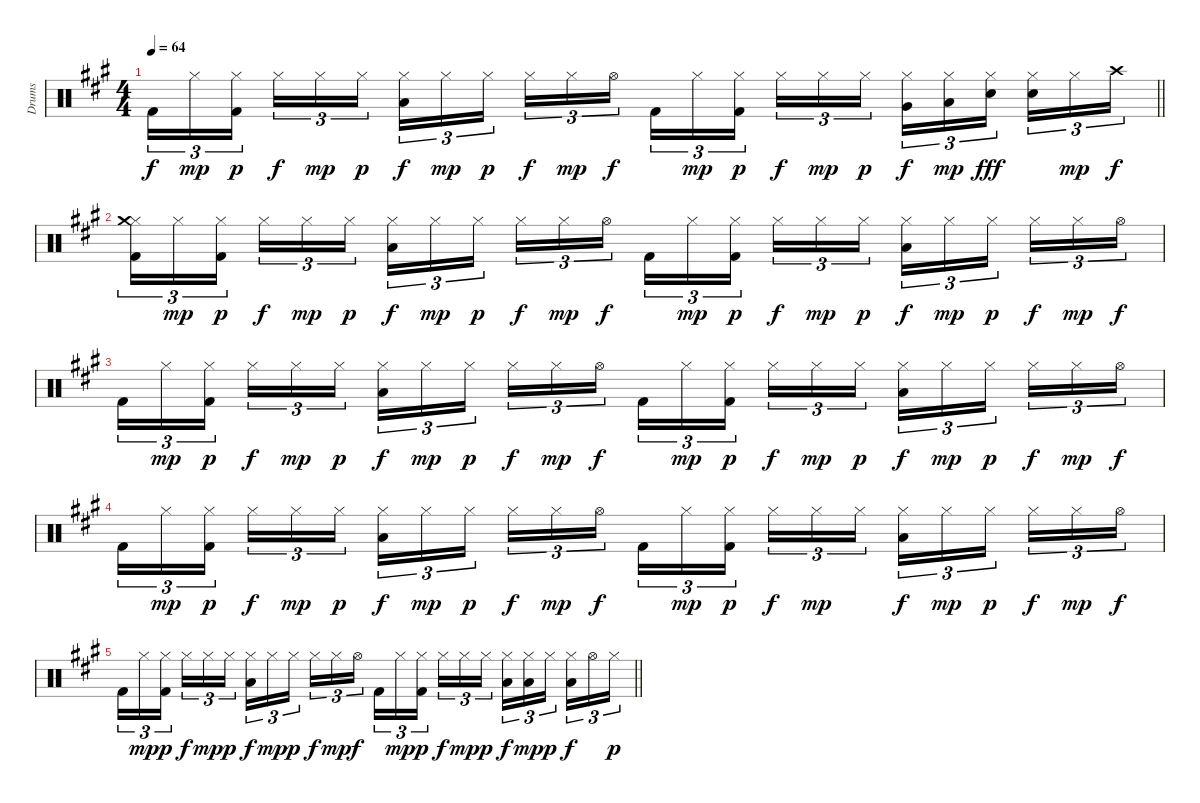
\track ("Drums          " "Drums     ") {instrument percussion}
\staff {score}
\articulation defaults
\ts (4 4)
\tempo 64
\clef neutral
\barLineRight lightlight
\ks f#minor "Kick (hit) 2".16{tu (3 2) dy f} "Hi-Hat (closed)".16{tu (3 2) dy mp}
("Hi-Hat (closed)" "Kick (hit) 2").16{tu (3 2) dy p beam splitsecondary} "Hi-Hat (closed)".16{tu (3 2) dy f} "Hi-Hat (closed)".16{tu (3 2) dy mp} "Hi-Hat (closed)".16{tu (3 2) dy p} ("Hi-Hat (closed)" "Low Floor Tom (hit)").16{tu (3 2) dy f} "Hi-Hat (closed)".16{tu (3 2) dy mp} "Hi-Hat (closed)".16{tu (3 2) dy p beam splitsecondary} "Hi-Hat (closed)".16{tu (3 2) dy f} "Hi-Hat (closed)".16{tu (3 2) dy mp} "Hi-Hat (open)".16{tu (3 2) dy f} "Kick (hit) 2".16{tu (3 2)} "Hi-Hat (closed)".16{tu (3 2) dy mp} ("Hi-Hat (closed)" "Kick (hit) 2").16{tu (3 2) dy p beam splitsecondary} "Hi-Hat (closed)".16{tu (3 2) dy f} "Hi-Hat (closed)".16{tu (3 2) dy mp} "Hi-Hat (closed)".16{tu (3 2) dy p} ("Hi-Hat (closed)" "Very Low Tom (hit)").16{tu (3 2) dy f} ("Hi-Hat (closed)" "Low Floor Tom (hit)").16{tu (3 2) dy mp} ("Hi-Hat (closed)" "Snare (hit) 2").16{tu (3 2) dy fff beam splitsecondary} ("Hi-Hat (closed)" "Snare (hit) 2").16{tu (3 2)} "Hi-Hat (closed)".16{tu (3 2) dy mp} "Crash high (hit)".16{tu (3 2) dy f} |
("Hi-Hat (closed)" "Kick (hit) 2" "Crash medium (hit)").16{tu (3 2)} "Hi-Hat (closed)".16{tu (3 2) dy mp} ("Hi-Hat (closed)" "Kick (hit) 2").16{tu (3 2) dy p beam splitsecondary} "Hi-Hat (closed)".16{tu (3 2) dy f} "Hi-Hat (closed)".16{tu (3 2) dy mp} "Hi-Hat (closed)".16{tu (3 2) dy p} ("Hi-Hat (closed)" "Low Floor Tom (hit)").16{tu (3 2) dy f} "Hi-Hat (closed)".16{tu (3 2) dy mp} "Hi-Hat (closed)".16{tu (3 2) dy p beam splitsecondary} "Hi-Hat (closed)".16{tu (3 2) dy f} "Hi-Hat (closed)".16{tu (3 2) dy mp} "Hi-Hat (open)".16{tu (3 2) dy f} "Kick (hit) 2".16{tu (3 2)} "Hi-Hat (closed)".16{tu (3 2) dy mp} ("Hi-Hat (closed)" "Kick (hit) 2").16{tu (3 2) dy p beam splitsecondary} "Hi-Hat (closed)".16{tu (3 2) dy f} "Hi-Hat (closed)".16{tu (3 2) dy mp} "Hi-Hat (closed)".16{tu (3 2) dy p} ("Hi-Hat (closed)" "Low Floor Tom (hit)").16{tu (3 2) dy f} "Hi-Hat (closed)".16{tu (3 2) dy mp} "Hi-Hat (closed)".16{tu (3 2) dy p beam splitsecondary} "Hi-Hat (closed)".16{tu (3 2) dy f} "Hi-Hat (closed)".16{tu (3 2) dy mp} "Hi-Hat (open)".16{tu (3 2) dy f} |
"Kick (hit) 2".16{tu (3 2)} "Hi-Hat (closed)".16{tu (3 2) dy mp} ("Hi-Hat (closed)" "Kick (hit) 2").16{tu (3 2) dy p beam splitsecondary} "Hi-Hat (closed)".16{tu (3 2) dy f} "Hi-Hat (closed)".16{tu (3 2) dy mp} "Hi-Hat (closed)".16{tu (3 2) dy p} ("Hi-Hat (closed)" "Low Floor Tom (hit)").16{tu (3 2) dy f} "Hi-Hat (closed)".16{tu (3 2) dy mp} "Hi-Hat (closed)".16{tu (3 2) dy p beam splitsecondary} "Hi-Hat (closed)".16{tu (3 2) dy f} "Hi-Hat (closed)".16{tu (3 2) dy mp} "Hi-Hat (open)".16{tu (3 2) dy f} "Kick (hit) 2".16{tu (3 2)} "Hi-Hat (closed)".16{tu (3 2) dy mp} ("Hi-Hat (closed)" "Kick (hit) 2").16{tu (3 2) dy p beam splitsecondary} "Hi-Hat (closed)".16{tu (3 2) dy f} "Hi-Hat (closed)".16{tu (3 2) dy mp} "Hi-Hat (closed)".16{tu (3 2) dy p} ("Hi-Hat (closed)" "Low Floor Tom (hit)").16{tu (3 2) dy f} "Hi-Hat (closed)".16{tu (3 2) dy mp} "Hi-Hat (closed)".16{tu (3 2) dy p beam splitsecondary} "Hi-Hat (closed)".16{tu (3 2) dy f} "Hi-Hat (closed)".16{tu (3 2) dy mp} "Hi-Hat (open)".16{tu (3 2) dy f} |
"Kick (hit) 2".16{tu (3 2)} "Hi-Hat (closed)".16{tu (3 2) dy mp} ("Hi-Hat (closed)" "Kick (hit) 2").16{tu (3 2) dy p beam splitsecondary} "Hi-Hat (closed)".16{tu (3 2) dy f} "Hi-Hat (closed)".16{tu (3 2) dy mp} "Hi-Hat (closed)".16{tu (3 2) dy p} ("Hi-Hat (closed)" "Low Floor Tom (hit)").16{tu (3 2) dy f} "Hi-Hat (closed)".16{tu (3 2) dy mp} "Hi-Hat (closed)".16{tu (3 2) dy p beam splitsecondary} "Hi-Hat (closed)".16{tu (3 2) dy f} "Hi-Hat (closed)".16{tu (3 2) dy mp} "Hi-Hat (open)".16{tu (3 2) dy f} "Kick (hit) 2".16{tu (3 2)} "Hi-Hat (closed)".16{tu (3 2) dy mp} ("Hi-Hat (closed)" "Kick (hit) 2").16{tu (3 2) dy p beam splitsecondary} "Hi-Hat (closed)".16{tu (3 2) dy f} "Hi-Hat (closed)".16{tu (3 2) dy mp} "Hi-Hat (closed)".16{tu (3 2)} ("Hi-Hat (closed)" "Low Floor Tom (hit)").16{tu (3 2) dy f} "Hi-Hat (closed)".16{tu (3 2) dy mp} "Hi-Hat (closed)".16{tu (3 2) dy p beam splitsecondary} "Hi-Hat (closed)".16{tu (3 2) dy f} "Hi-Hat (closed)".16{tu (3 2) dy mp} "Hi-Hat (open)".16{tu (3 2) dy f} |
\barLineRight lightlight "Kick (hit) 2".16{tu (3 2)} "Hi-Hat (closed)".16{tu (3 2) dy mp}
("Hi-Hat (closed)" "Kick (hit) 2").16{tu (3 2) dy p beam splitsecondary} "Hi-Hat (closed)".16{tu (3 2) dy f} "Hi-Hat (closed)".16{tu (3 2) dy mp} "Hi-Hat (closed)".16{tu (3 2) dy p} ("Hi-Hat (closed)" "Low Floor Tom (hit)").16{tu (3 2) dy f} "Hi-Hat (closed)".16{tu (3 2) dy mp} "Hi-Hat (closed)".16{tu (3 2) dy p beam splitsecondary} "Hi-Hat (closed)".16{tu (3 2) dy f} "Hi-Hat (closed)".16{tu (3 2) dy mp} "Hi-Hat (open)".16{tu (3 2) dy f} "Kick (hit) 2".16{tu (3 2)} "Hi-Hat (closed)".16{tu (3 2) dy mp} ("Hi-Hat (closed)" "Kick (hit) 2").16{tu (3 2) dy p beam splitsecondary} "Hi-Hat (closed)".16{tu (3 2) dy f} "Hi-Hat (closed)".16{tu (3 2) dy mp} "Hi-Hat (closed)".16{tu (3 2) dy p} ("Hi-Hat (closed)" "Low Floor Tom (hit)").16{tu (3 2) dy f} ("Hi-Hat (closed)" "Low Tom (hit)").16{tu (3 2) dy mp} "Hi-Hat (closed)".16{tu (3 2) dy p beam splitsecondary} ("Hi-Hat (closed)" "Low Tom (hit)").16{tu (3 2) dy f} "Hi-Hat (open)".16{tu (3 2)} "Hi-Hat (closed)".16{tu (3 2) dy p}
